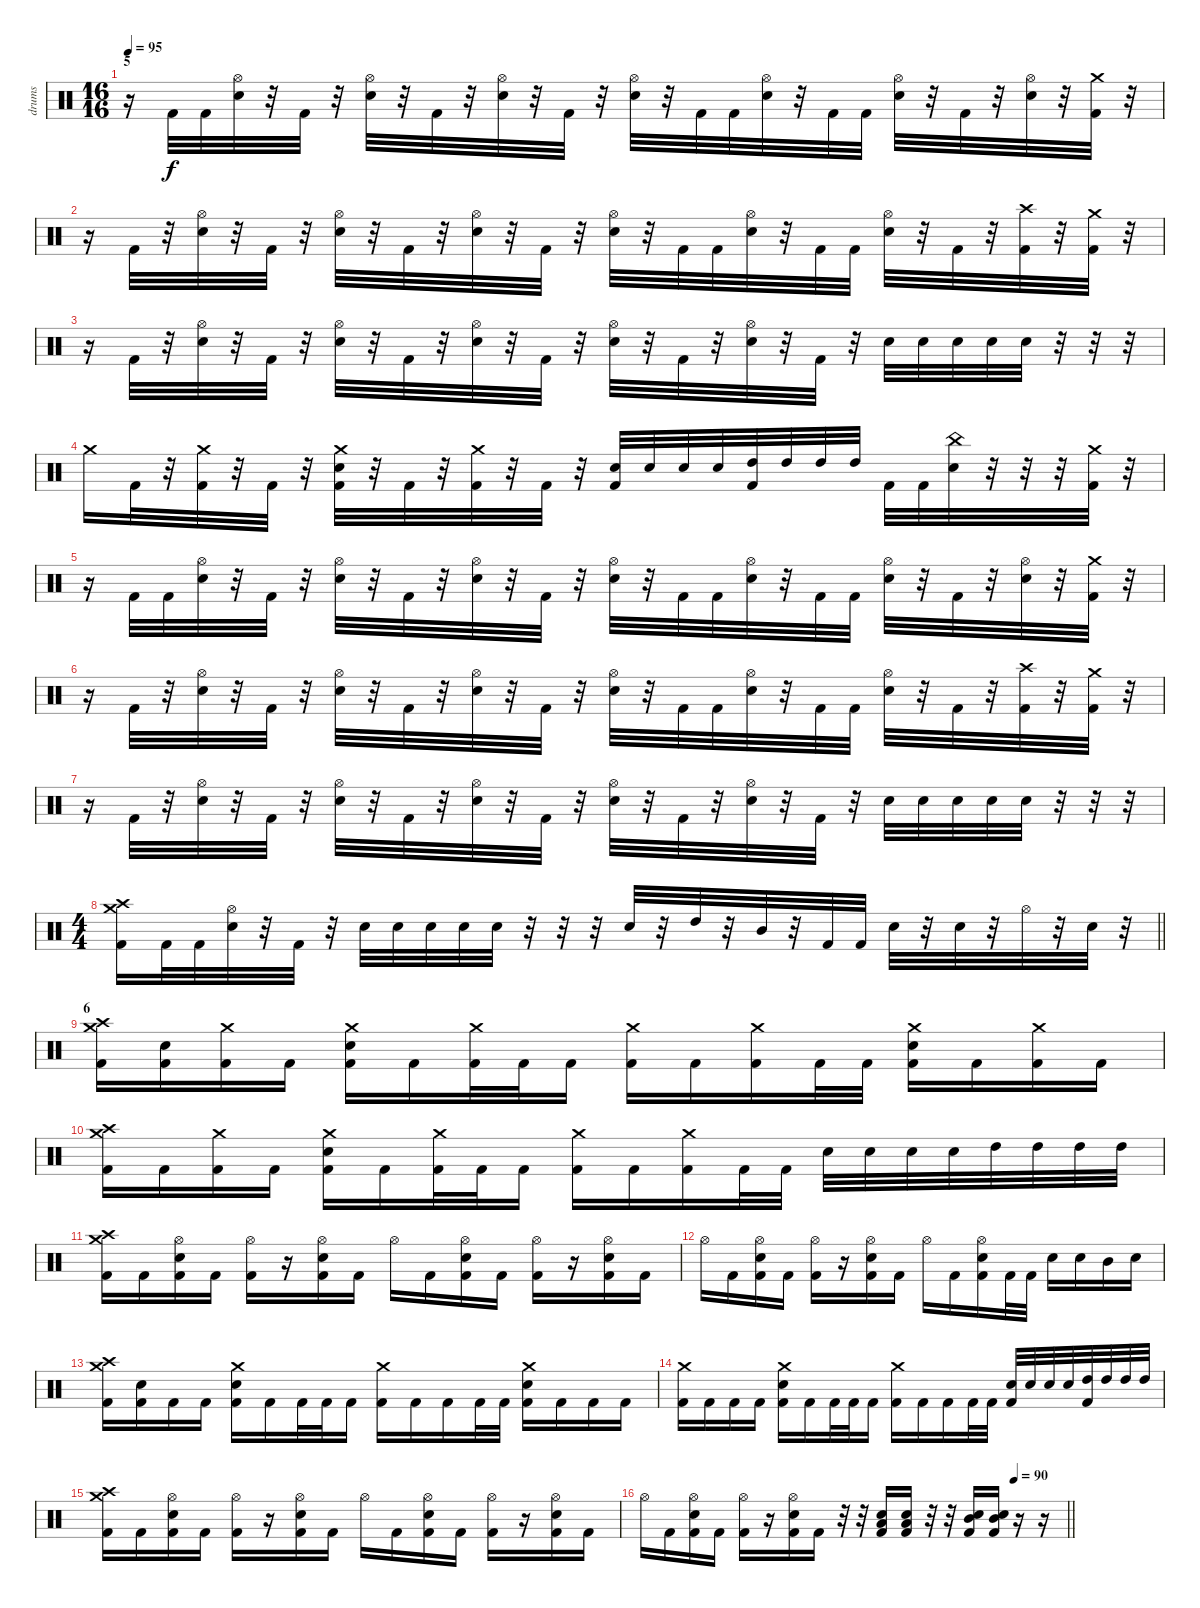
\track ("drums" "drums") {instrument percussion}
\staff {score}
\articulation defaults
\ts (16 16)
\section ("" "5")
\tempo 95
\clef neutral
\ks c
r.16{dy f} "Kick (hit) 2".32 "Kick (hit) 2".32 ("Hi-Hat (open)" "Electric Snare (hit)").32 r.32 "Kick (hit) 2".32 r.32 ("Hi-Hat (open)" "Electric Snare (hit)").32 r.32 "Kick (hit) 2".32 r.32 ("Hi-Hat (open)" "Electric Snare (hit)").32 r.32 "Kick (hit) 2".32 r.32 ("Hi-Hat (open)" "Electric Snare (hit)").32 r.32 "Kick (hit) 2".32 "Kick (hit) 2".32 ("Hi-Hat (open)" "Electric Snare (hit)").32 r.32 "Kick (hit) 2".32 "Kick (hit) 2".32 ("Hi-Hat (open)" "Electric Snare (hit)").32 r.32 "Kick (hit) 2".32 r.32 ("Hi-Hat (open)" "Electric Snare (hit)").32 r.32 ("Crash medium (hit)" "Kick (hit) 2").32 r.32 |
r.16 "Kick (hit) 2".32 r.32 ("Hi-Hat (open)" "Electric Snare (hit)").32 r.32 "Kick (hit) 2".32 r.32 ("Hi-Hat (open)" "Electric Snare (hit)").32 r.32 "Kick (hit) 2".32 r.32 ("Hi-Hat (open)" "Electric Snare (hit)").32 r.32 "Kick (hit) 2".32 r.32 ("Hi-Hat (open)" "Electric Snare (hit)").32 r.32 "Kick (hit) 2".32 "Kick (hit) 2".32 ("Hi-Hat (open)" "Electric Snare (hit)").32 r.32 "Kick (hit) 2".32 "Kick (hit) 2".32 ("Hi-Hat (open)" "Electric Snare (hit)").32 r.32 "Kick (hit) 2".32 r.32 ("Crash high (hit)" "Kick (hit) 2").32 r.32 ("Crash medium (hit)" "Kick (hit) 2").32 r.32 |
r.16 "Kick (hit) 2".32 r.32 ("Hi-Hat (open)" "Electric Snare (hit)").32 r.32 "Kick (hit) 2".32 r.32 ("Hi-Hat (open)" "Electric Snare (hit)").32 r.32 "Kick (hit) 2".32 r.32 ("Hi-Hat (open)" "Electric Snare (hit)").32 r.32 "Kick (hit) 2".32 r.32 ("Hi-Hat (open)" "Electric Snare (hit)").32 r.32 "Kick (hit) 2".32 r.32 ("Hi-Hat (open)" "Electric Snare (hit)").32 r.32 "Kick (hit) 2".32 r.32 "Electric Snare (hit)".32 "Electric Snare (hit)".32 "Electric Snare (hit)".32 "Electric Snare (hit)".32 "Electric Snare (hit)".32 r.32 r.32 r.32 |
"Crash medium (hit)".16 "Kick (hit) 2".32 r.32 ("Crash medium (hit)" "Kick (hit) 2").32 r.32 "Kick (hit) 2".32 r.32 ("Crash medium (hit)" "Electric Snare (hit)" "Kick (hit) 2").32 r.32 "Kick (hit) 2".32 r.32 ("Crash medium (hit)" "Kick (hit) 2").32 r.32 "Kick (hit) 2".32 r.32 ("Electric Snare (hit)" "Kick (hit) 2").32 "Electric Snare (hit)".32 "Electric Snare (hit)".32 "Electric Snare (hit)".32 ("High Tom (hit)" "Kick (hit) 2").32 "High Tom (hit)".32 "High Tom (hit)".32 "High Tom (hit)".32 "Kick (hit) 2".32 "Kick (hit) 2".32 ("China (hit)" "Electric Snare (hit)").32 r.32 r.32 r.32 ("Crash medium (hit)" "Kick (hit) 2").32 r.32 |
r.16 "Kick (hit) 2".32 "Kick (hit) 2".32 ("Hi-Hat (open)" "Electric Snare (hit)").32 r.32 "Kick (hit) 2".32 r.32 ("Hi-Hat (open)" "Electric Snare (hit)").32 r.32 "Kick (hit) 2".32 r.32 ("Hi-Hat (open)" "Electric Snare (hit)").32 r.32 "Kick (hit) 2".32 r.32 ("Hi-Hat (open)" "Electric Snare (hit)").32 r.32 "Kick (hit) 2".32 "Kick (hit) 2".32 ("Hi-Hat (open)" "Electric Snare (hit)").32 r.32 "Kick (hit) 2".32 "Kick (hit) 2".32 ("Hi-Hat (open)" "Electric Snare (hit)").32 r.32 "Kick (hit) 2".32 r.32 ("Hi-Hat (open)" "Electric Snare (hit)").32 r.32 ("Crash medium (hit)" "Kick (hit) 2").32 r.32 |
r.16 "Kick (hit) 2".32 r.32 ("Hi-Hat (open)" "Electric Snare (hit)").32 r.32 "Kick (hit) 2".32 r.32 ("Hi-Hat (open)" "Electric Snare (hit)").32 r.32 "Kick (hit) 2".32 r.32 ("Hi-Hat (open)" "Electric Snare (hit)").32 r.32 "Kick (hit) 2".32 r.32 ("Hi-Hat (open)" "Electric Snare (hit)").32 r.32 "Kick (hit) 2".32 "Kick (hit) 2".32 ("Hi-Hat (open)" "Electric Snare (hit)").32 r.32 "Kick (hit) 2".32 "Kick (hit) 2".32 ("Hi-Hat (open)" "Electric Snare (hit)").32 r.32 "Kick (hit) 2".32 r.32 ("Crash high (hit)" "Kick (hit) 2").32 r.32 ("Crash medium (hit)" "Kick (hit) 2").32 r.32 |
r.16 "Kick (hit) 2".32 r.32 ("Hi-Hat (open)" "Electric Snare (hit)").32 r.32 "Kick (hit) 2".32 r.32 ("Hi-Hat (open)" "Electric Snare (hit)").32 r.32 "Kick (hit) 2".32 r.32 ("Hi-Hat (open)" "Electric Snare (hit)").32 r.32 "Kick (hit) 2".32 r.32 ("Hi-Hat (open)" "Electric Snare (hit)").32 r.32 "Kick (hit) 2".32 r.32 ("Hi-Hat (open)" "Electric Snare (hit)").32 r.32 "Kick (hit) 2".32 r.32 "Electric Snare (hit)".32 "Electric Snare (hit)".32 "Electric Snare (hit)".32 "Electric Snare (hit)".32 "Electric Snare (hit)".32 r.32 r.32 r.32 |
\ts (4 4)
\barLineRight lightlight
("Crash medium (hit)" "Crash high (hit)" "Kick (hit) 2").16 "Kick (hit) 2".32 "Kick (hit) 2".32 ("Hi-Hat (open)" "Electric Snare (hit)").32 r.32 "Kick (hit) 2".32 r.32 "Electric Snare (hit)".32 "Electric Snare (hit)".32 "Electric Snare (hit)".32 "Electric Snare (hit)".32 "Electric Snare (hit)".32 r.32 r.32 r.32 "Electric Snare (hit)".32 r.32 "High Tom (hit)".32 r.32 "Mid Tom (hit)".32 r.32 "Kick (hit) 2".32 "Kick (hit) 2".32 "Electric Snare (hit)".32 r.32 "Electric Snare (hit)".32 r.32 "Hi-Hat (open)".32 r.32 "Electric Snare (hit)".32 r.32 |
\section ("" "6")
("Crash medium (hit)" "Crash high (hit)" "Kick (hit) 2").16 ("Electric Snare (hit)" "Kick (hit) 2").16 ("Crash medium (hit)" "Kick (hit) 2").16 "Kick (hit) 2".16 ("Crash medium (hit)" "Electric Snare (hit)" "Kick (hit) 2").16 "Kick (hit) 2".16 ("Crash medium (hit)" "Kick (hit) 2").32 "Kick (hit) 2".32 "Kick (hit) 2".16 ("Crash medium (hit)" "Kick (hit) 2").16 "Kick (hit) 2".16 ("Crash medium (hit)" "Kick (hit) 2").16 "Kick (hit) 2".32 "Kick (hit) 2".32 ("Crash medium (hit)" "Electric Snare (hit)" "Kick (hit) 2").16 "Kick (hit) 2".16 ("Crash medium (hit)" "Kick (hit) 2").16 "Kick (hit) 2".16 |
("Crash medium (hit)" "Crash high (hit)" "Kick (hit) 2").16 "Kick (hit) 2".16 ("Crash medium (hit)" "Kick (hit) 2").16 "Kick (hit) 2".16 ("Crash medium (hit)" "Electric Snare (hit)" "Kick (hit) 2").16 "Kick (hit) 2".16 ("Crash medium (hit)" "Kick (hit) 2").32 "Kick (hit) 2".32 "Kick (hit) 2".16 ("Crash medium (hit)" "Kick (hit) 2").16 "Kick (hit) 2".16 ("Crash medium (hit)" "Kick (hit) 2").16 "Kick (hit) 2".32 "Kick (hit) 2".32 "Electric Snare (hit)".32 "Electric Snare (hit)".32 "Electric Snare (hit)".32 "Electric Snare (hit)".32 "High Tom (hit)".32 "High Tom (hit)".32 "High Tom (hit)".32 "High Tom (hit)".32 |
("Crash medium (hit)" "Crash high (hit)" "Kick (hit) 2").16 "Kick (hit) 2".16 ("Hi-Hat (open)" "Electric Snare (hit)" "Kick (hit) 2").16 "Kick (hit) 2".16 ("Hi-Hat (open)" "Kick (hit) 2").16 r.16 ("Hi-Hat (open)" "Electric Snare (hit)" "Kick (hit) 2").16 "Kick (hit) 2".16 "Hi-Hat (open)".16 "Kick (hit) 2".16 ("Hi-Hat (open)" "Electric Snare (hit)" "Kick (hit) 2").16 "Kick (hit) 2".16 ("Hi-Hat (open)" "Kick (hit) 2").16 r.16 ("Hi-Hat (open)" "Electric Snare (hit)" "Kick (hit) 2").16 "Kick (hit) 2".16 |
"Hi-Hat (open)".16 "Kick (hit) 2".16 ("Hi-Hat (open)" "Electric Snare (hit)" "Kick (hit) 2").16 "Kick (hit) 2".16 ("Hi-Hat (open)" "Kick (hit) 2").16 r.16 ("Hi-Hat (open)" "Electric Snare (hit)" "Kick (hit) 2").16 "Kick (hit) 2".16 "Hi-Hat (open)".16 "Kick (hit) 2".16 ("Hi-Hat (open)" "Electric Snare (hit)" "Kick (hit) 2").16 "Kick (hit) 2".32 "Kick (hit) 2".32 "Electric Snare (hit)".16 "Electric Snare (hit)".16 "Mid Tom (hit)".16 "Electric Snare (hit)".16 |
("Crash medium (hit)" "Crash high (hit)" "Kick (hit) 2").16 ("Electric Snare (hit)" "Kick (hit) 2").16 "Kick (hit) 2".16 "Kick (hit) 2".16 ("Crash medium (hit)" "Electric Snare (hit)" "Kick (hit) 2").16 "Kick (hit) 2".16 "Kick (hit) 2".32 "Kick (hit) 2".32 "Kick (hit) 2".16 ("Crash medium (hit)" "Kick (hit) 2").16 "Kick (hit) 2".16 "Kick (hit) 2".16 "Kick (hit) 2".32 "Kick (hit) 2".32 ("Crash medium (hit)" "Electric Snare (hit)" "Kick (hit) 2").16 "Kick (hit) 2".16 "Kick (hit) 2".16 "Kick (hit) 2".16 |
("Crash medium (hit)" "Kick (hit) 2").16 "Kick (hit) 2".16 "Kick (hit) 2".16 "Kick (hit) 2".16 ("Crash medium (hit)" "Electric Snare (hit)" "Kick (hit) 2").16 "Kick (hit) 2".16 "Kick (hit) 2".32 "Kick (hit) 2".32 "Kick (hit) 2".16 ("Crash medium (hit)" "Kick (hit) 2").16 "Kick (hit) 2".16 "Kick (hit) 2".16 "Kick (hit) 2".32 "Kick (hit) 2".32 ("Electric Snare (hit)" "Kick (hit) 2").32 "Electric Snare (hit)".32 "Electric Snare (hit)".32 "Electric Snare (hit)".32 ("High Tom (hit)" "Kick (hit) 2").32 "High Tom (hit)".32 "High Tom (hit)".32 "High Tom (hit)".32 |
("Crash medium (hit)" "Crash high (hit)" "Kick (hit) 2").16 "Kick (hit) 2".16 ("Hi-Hat (open)" "Electric Snare (hit)" "Kick (hit) 2").16 "Kick (hit) 2".16 ("Hi-Hat (open)" "Kick (hit) 2").16 r.16 ("Hi-Hat (open)" "Electric Snare (hit)" "Kick (hit) 2").16 "Kick (hit) 2".16 "Hi-Hat (open)".16 "Kick (hit) 2".16 ("Hi-Hat (open)" "Electric Snare (hit)" "Kick (hit) 2").16 "Kick (hit) 2".16 ("Hi-Hat (open)" "Kick (hit) 2").16 r.16 ("Hi-Hat (open)" "Electric Snare (hit)" "Kick (hit) 2").16 "Kick (hit) 2".16 |
\tempo (90 0.875)
\barLineRight lightlight "Hi-Hat (open)".16 "Kick (hit) 2".16
("Hi-Hat (open)" "Electric Snare (hit)" "Kick (hit) 2").16 "Kick (hit) 2".16 ("Hi-Hat (open)" "Kick (hit) 2").16 r.16 ("Hi-Hat (open)" "Electric Snare (hit)" "Kick (hit) 2").16 "Kick (hit) 2".16 r.32 r.32 ("Low Floor Tom (hit)" "Electric Snare (hit)" "Kick (hit) 2").16 ("Low Floor Tom (hit)" "Electric Snare (hit)" "Kick (hit) 2").16 r.32 r.32 ("Mid Tom (hit)" "Electric Snare (hit)" "Kick (hit) 2").16 ("Mid Tom (hit)" "Electric Snare (hit)" "Kick (hit) 2").16 r.16 r.16
